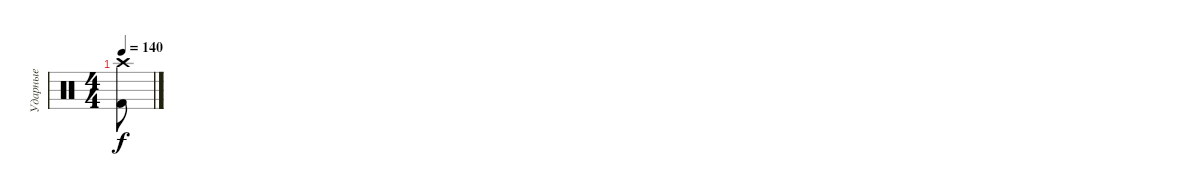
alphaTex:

\track ("Ударные" "Ударные") {instrument percussion}
\staff {score}
\articulation defaults
\ts (4 4)
\tempo 140
\clef neutral
\ks c
("Crash high (hit)" "Kick (hit) 2").8{dy f}
